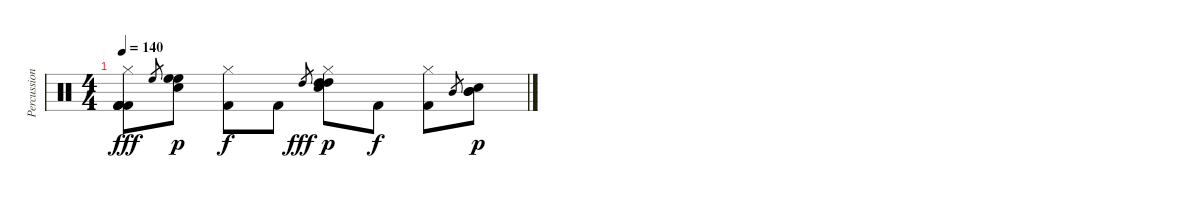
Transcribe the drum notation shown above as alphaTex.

\track ("Percussions" "Percussion") {instrument percussion}
\staff {score}
\articulation defaults
\ts (4 4)
\tempo 140
\clef neutral
\ks c
("Hi-Hat (closed)" "Kick (hit) 2" "Kick (hit) 2" "Kick (hit) 2" "Kick (hit) 2" "Kick (hit) 2").8{dy fff} "High Floor Tom (hit)".8{gr} ("High Floor Tom (hit)" "High Floor Tom (hit)" "Snare (hit) 2").8{dy p} ("Hi-Hat (closed)" "Kick (hit) 2").8{dy f} "Kick (hit) 2".8 "High Tom (hit)".8{gr dy fff} ("Hi-Hat (closed)" "High Tom (hit)" "High Tom (hit)" "Snare (hit) 2").8{dy p} "Kick (hit) 2".8{dy f} ("Hi-Hat (closed)" "Kick (hit) 2").8 "Mid Tom (hit)".8{gr} ("Mid Tom (hit)" "Mid Tom (hit)" "Snare (hit) 2").8{dy p}
